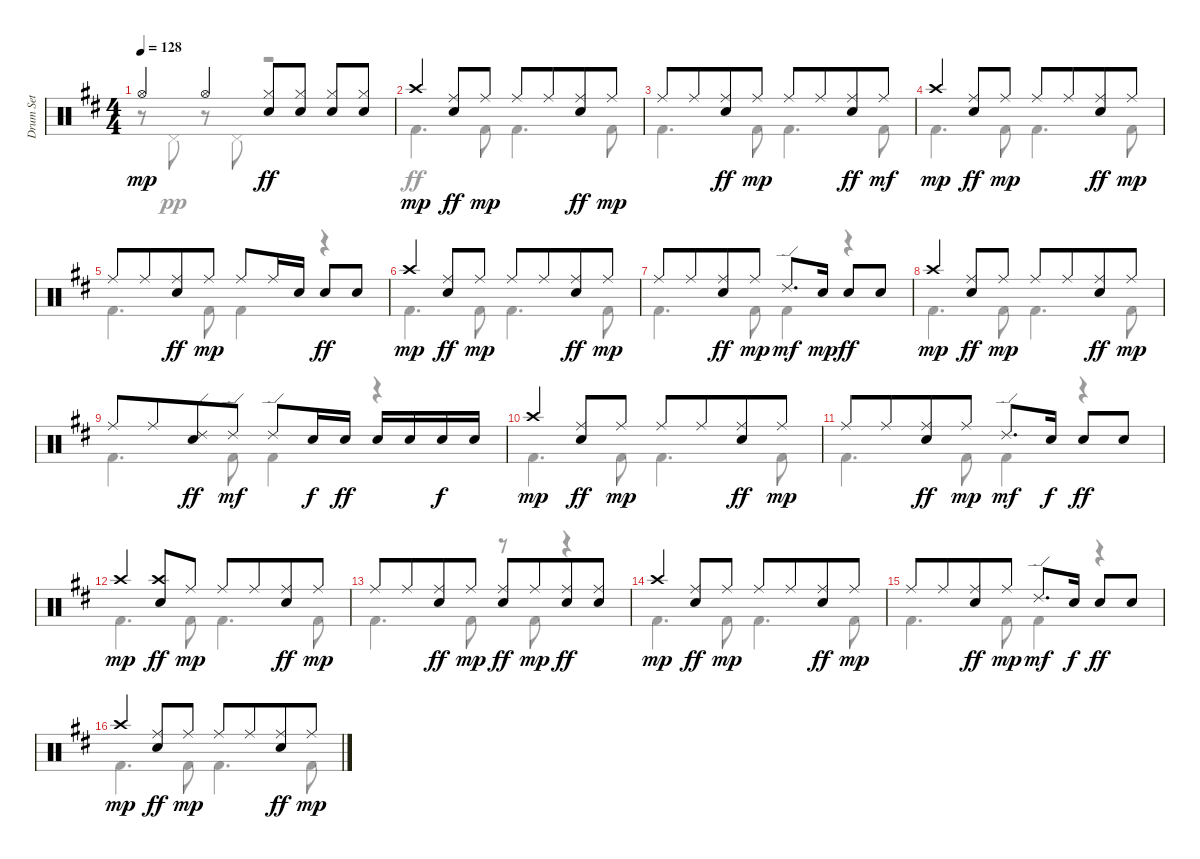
\track ("Drum Set" "Drum Set") {instrument percussion}
\staff {score}
\articulation defaults
\voice
\ts (4 4)
\tempo 128
\clef neutral
\ks bminor "Hi-Hat (open)".4{dy mp} "Hi-Hat (open)".4
("Hi-Hat (closed)" "Electric Snare (hit)").8{dy ff} ("Hi-Hat (closed)" "Electric Snare (hit)").8 ("Hi-Hat (closed)" "Electric Snare (hit)").8 ("Hi-Hat (closed)" "Electric Snare (hit)").8 |
"Crash high (hit)".4{dy mp} ("Ride (middle)" "Electric Snare (hit)").8{dy ff} "Ride (middle)".8{dy mp} "Ride (middle)".8 "Ride (middle)".8{beam merge} ("Ride (middle)" "Electric Snare (hit)").8{dy ff} "Ride (middle)".8{dy mp} |
"Ride (middle)".8 "Ride (middle)".8{beam merge} ("Ride (middle)" "Electric Snare (hit)").8{dy ff} "Ride (middle)".8{dy mp} "Ride (middle)".8 "Ride (middle)".8{beam merge} ("Ride (middle)" "Electric Snare (hit)").8{dy ff} "Ride (middle)".8{dy mf} |
"Crash high (hit)".4{dy mp} ("Ride (middle)" "Electric Snare (hit)").8{dy ff} "Ride (middle)".8{dy mp} "Ride (middle)".8 "Ride (middle)".8{beam merge} ("Ride (middle)" "Electric Snare (hit)").8{dy ff} "Ride (middle)".8{dy mp} |
"Ride (middle)".8 "Ride (middle)".8{beam merge} ("Ride (middle)" "Electric Snare (hit)").8{dy ff} "Ride (middle)".8{dy mp} "Ride (middle)".8 "Ride (middle)".16 "Electric Snare (hit)".16 "Electric Snare (hit)".8{dy ff} "Electric Snare (hit)".8 |
"Crash high (hit)".4{dy mp} ("Ride (middle)" "Electric Snare (hit)").8{dy ff} "Ride (middle)".8{dy mp} "Ride (middle)".8 "Ride (middle)".8{beam merge} ("Ride (middle)" "Electric Snare (hit)").8{dy ff} "Ride (middle)".8{dy mp} |
"Ride (middle)".8 "Ride (middle)".8{beam merge} ("Ride (middle)" "Electric Snare (hit)").8{dy ff} "Ride (middle)".8{dy mp} "Ride (edge) 2".8{d dy mf} "Electric Snare (hit)".16{dy mp} "Electric Snare (hit)".8{dy ff} "Electric Snare (hit)".8 |
"Crash high (hit)".4{dy mp} ("Ride (middle)" "Electric Snare (hit)").8{dy ff} "Ride (middle)".8{dy mp} "Ride (middle)".8 "Ride (middle)".8{beam merge} ("Ride (middle)" "Electric Snare (hit)").8{dy ff} "Ride (middle)".8{dy mp} |
"Ride (middle)".8 "Ride (middle)".8{beam merge} ("Ride (edge) 2" "Electric Snare (hit)").8{dy ff} "Ride (edge) 2".8{dy mf} "Ride (edge) 2".8 "Electric Snare (hit)".16{dy f} "Electric Snare (hit)".16{dy ff} "Electric Snare (hit)".16 "Electric Snare (hit)".16 "Electric Snare (hit)".16{dy f} "Electric Snare (hit)".16 |
"Crash high (hit)".4{dy mp} ("Ride (middle)" "Electric Snare (hit)").8{dy ff} "Ride (middle)".8{dy mp} "Ride (middle)".8 "Ride (middle)".8{beam merge} ("Ride (middle)" "Electric Snare (hit)").8{dy ff} "Ride (middle)".8{dy mp} |
"Ride (middle)".8 "Ride (middle)".8{beam merge} ("Ride (middle)" "Electric Snare (hit)").8{dy ff} "Ride (middle)".8{dy mp} "Ride (edge) 2".8{d dy mf} "Electric Snare (hit)".16{dy f} "Electric Snare (hit)".8{dy ff} "Electric Snare (hit)".8 |
"Crash high (hit)".4{dy mp} ("Crash high (hit)" "Electric Snare (hit)").8{dy ff} "Ride (middle)".8{dy mp} "Ride (middle)".8 "Ride (middle)".8{beam merge} ("Ride (middle)" "Electric Snare (hit)").8{dy ff} "Ride (middle)".8{dy mp} |
"Ride (middle)".8 "Ride (middle)".8{beam merge} ("Ride (middle)" "Electric Snare (hit)").8{dy ff} "Ride (middle)".8{dy mp} ("Ride (middle)" "Electric Snare (hit)").8{dy ff} "Ride (middle)".8{dy mp beam merge} ("Ride (middle)" "Electric Snare (hit)").8{dy ff} ("Ride (middle)" "Electric Snare (hit)").8 |
"Crash high (hit)".4{dy mp} ("Ride (middle)" "Electric Snare (hit)").8{dy ff} "Ride (middle)".8{dy mp} "Ride (middle)".8 "Ride (middle)".8{beam merge} ("Ride (middle)" "Electric Snare (hit)").8{dy ff} "Ride (middle)".8{dy mp} |
"Ride (middle)".8 "Ride (middle)".8{beam merge} ("Ride (middle)" "Electric Snare (hit)").8{dy ff} "Ride (middle)".8{dy mp} "Ride (edge) 2".8{d dy mf} "Electric Snare (hit)".16{dy f} "Electric Snare (hit)".8{dy ff} "Electric Snare (hit)".8 |
"Crash high (hit)".4{dy mp} ("Ride (middle)" "Electric Snare (hit)").8{dy ff} "Ride (middle)".8{dy mp} "Ride (middle)".8 "Ride (middle)".8{beam merge} ("Ride (middle)" "Electric Snare (hit)").8{dy ff} "Ride (middle)".8{dy mp}
\voice
\clef neutral
\ottava regular
\simile none
\ks bminor
r.8{dy ff} "Pedal Hi-Hat (hit)".8{dy pp} r.8 "Pedal Hi-Hat (hit)".8 r.2 |
"Kick (hit) 2".4{d dy ff} "Kick (hit) 2".8 "Kick (hit) 2".4{d} "Kick (hit) 2".8 |
"Kick (hit) 2".4{d} "Kick (hit) 2".8 "Kick (hit) 2".4{d} "Kick (hit) 2".8 |
"Kick (hit) 2".4{d} "Kick (hit) 2".8 "Kick (hit) 2".4{d} "Kick (hit) 2".8 |
"Kick (hit) 2".4{d} "Kick (hit) 2".8 "Kick (hit) 2".4 r.4 |
"Kick (hit) 2".4{d} "Kick (hit) 2".8 "Kick (hit) 2".4{d} "Kick (hit) 2".8 |
"Kick (hit) 2".4{d} "Kick (hit) 2".8 "Kick (hit) 2".4 r.4 |
"Kick (hit) 2".4{d} "Kick (hit) 2".8 "Kick (hit) 2".4{d} "Kick (hit) 2".8 |
"Kick (hit) 2".4{d} "Kick (hit) 2".8 "Kick (hit) 2".4 r.4 |
"Kick (hit) 2".4{d} "Kick (hit) 2".8 "Kick (hit) 2".4{d} "Kick (hit) 2".8 |
"Kick (hit) 2".4{d} "Kick (hit) 2".8 "Kick (hit) 2".4 r.4 |
"Kick (hit) 2".4{d} "Kick (hit) 2".8 "Kick (hit) 2".4{d} "Kick (hit) 2".8 |
"Kick (hit) 2".4{d} "Kick (hit) 2".8 r.8 "Kick (hit) 2".8 r.4 |
"Kick (hit) 2".4{d} "Kick (hit) 2".8 "Kick (hit) 2".4{d} "Kick (hit) 2".8 |
"Kick (hit) 2".4{d} "Kick (hit) 2".8 "Kick (hit) 2".4 r.4 |
"Kick (hit) 2".4{d} "Kick (hit) 2".8 "Kick (hit) 2".4{d} "Kick (hit) 2".8
